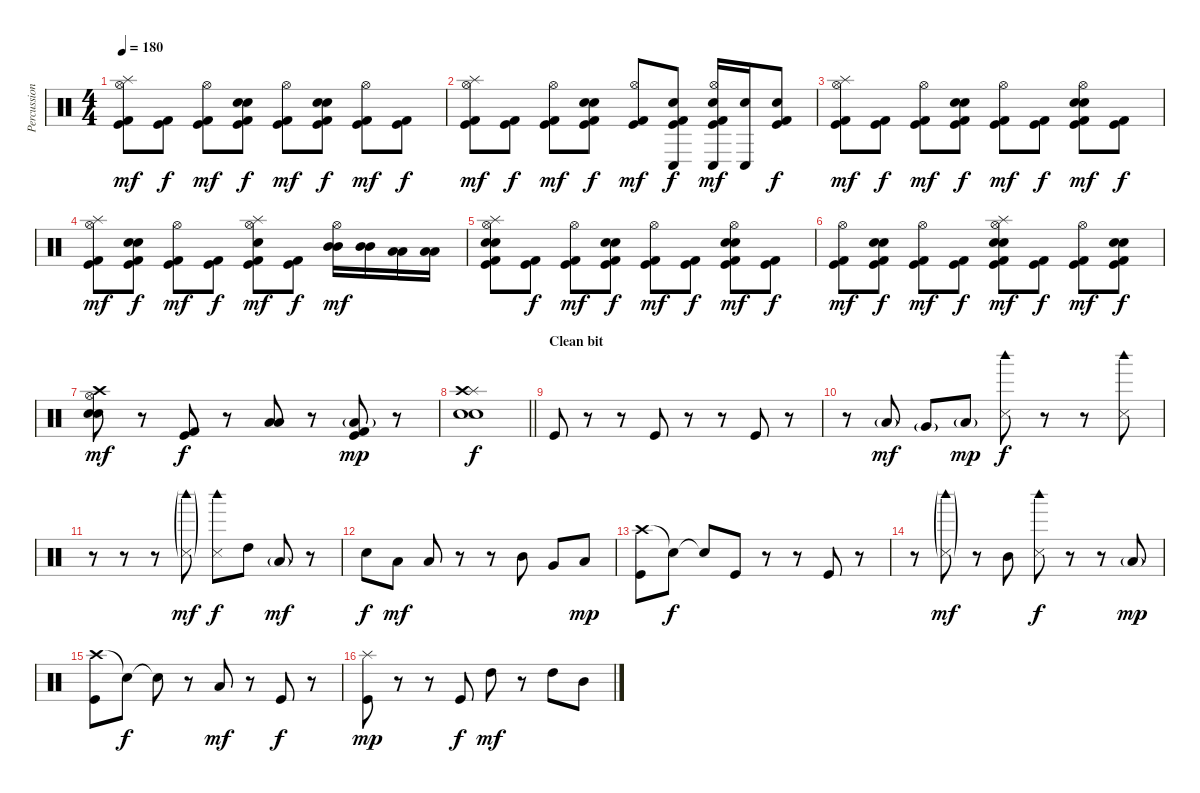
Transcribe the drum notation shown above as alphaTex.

\track ("Percussion" "Percussion") {instrument percussion}
\staff {score}
\articulation defaults
\ts (4 4)
\tempo 180
\clef neutral
\ks c
("Splash (hit)" "Hi-Hat (open)" "Kick (hit) 2" "Kick (hit)").8{dy mf} ("Kick (hit) 2" "Kick (hit)").8{dy f} ("Hi-Hat (open)" "Kick (hit) 2" "Kick (hit)").8{dy mf} ("Electric Snare (hit)" "Electric Snare (hit)" "Kick (hit) 2" "Kick (hit)").8{dy f} ("Hi-Hat (open)" "Kick (hit) 2" "Kick (hit)").8{dy mf} ("Electric Snare (hit)" "Electric Snare (hit)" "Kick (hit) 2" "Kick (hit)").8{dy f} ("Hi-Hat (open)" "Kick (hit) 2" "Kick (hit)").8{dy mf} ("Kick (hit) 2" "Kick (hit)").8{dy f} |
("Splash (hit)" "Hi-Hat (open)" "Kick (hit) 2" "Kick (hit)").8{dy mf} ("Kick (hit) 2" "Kick (hit)").8{dy f} ("Hi-Hat (open)" "Kick (hit) 2" "Kick (hit)").8{dy mf} ("Electric Snare (hit)" "Electric Snare (hit)" "Kick (hit) 2" "Kick (hit)").8{dy f} ("Hi-Hat (open)" "Kick (hit) 2" "Kick (hit)").8{dy mf} ("Conga low (hit)" "Electric Snare (hit)" "Kick (hit) 2" "Kick (hit)").8{dy f} ("Hi-Hat (open)" "Conga low (hit)" "Electric Snare (hit)" "Kick (hit) 2" "Kick (hit)").16{dy mf} ("Conga low (hit)" "Electric Snare (hit)").16 ("Electric Snare (hit)" "Kick (hit) 2" "Kick (hit)").8{dy f} |
("Splash (hit)" "Hi-Hat (open)" "Kick (hit) 2" "Kick (hit)").8{dy mf} ("Kick (hit) 2" "Kick (hit)").8{dy f} ("Hi-Hat (open)" "Kick (hit) 2" "Kick (hit)").8{dy mf} ("Electric Snare (hit)" "Electric Snare (hit)" "Kick (hit) 2" "Kick (hit)").8{dy f} ("Hi-Hat (open)" "Kick (hit) 2" "Kick (hit)").8{dy mf} ("Kick (hit) 2" "Kick (hit)").8{dy f} ("Hi-Hat (open)" "Electric Snare (hit)" "Electric Snare (hit)" "Kick (hit) 2" "Kick (hit)").8{dy mf} ("Kick (hit) 2" "Kick (hit)").8{dy f} |
("Splash (hit)" "Hi-Hat (open)" "Kick (hit) 2" "Kick (hit)").8{dy mf} ("Electric Snare (hit)" "Electric Snare (hit)" "Kick (hit) 2" "Kick (hit)").8{dy f} ("Hi-Hat (open)" "Kick (hit) 2" "Kick (hit)").8{dy mf} ("Kick (hit) 2" "Kick (hit)").8{dy f} ("Splash (hit)" "Hi-Hat (open)" "Electric Snare (hit)" "Kick (hit) 2" "Kick (hit)").8{dy mf} ("Kick (hit) 2" "Kick (hit)").8{dy f} ("Hi-Hat (open)" "Mid Tom (hit)" "Mid Tom (hit)").16{dy mf} ("Mid Tom (hit)" "Mid Tom (hit)").16 ("Low Tom (hit)" "Low Tom (hit)").16 ("Low Tom (hit)" "Low Tom (hit)").16 |
("Splash (hit)" "Hi-Hat (open)" "Electric Snare (hit)" "Electric Snare (hit)" "Kick (hit) 2" "Kick (hit)").8 ("Kick (hit) 2" "Kick (hit)").8{dy f} ("Hi-Hat (open)" "Kick (hit) 2" "Kick (hit)").8{dy mf} ("Electric Snare (hit)" "Electric Snare (hit)" "Kick (hit) 2" "Kick (hit)").8{dy f} ("Hi-Hat (open)" "Kick (hit) 2" "Kick (hit)").8{dy mf} ("Kick (hit) 2" "Kick (hit)").8{dy f} ("Hi-Hat (open)" "Electric Snare (hit)" "Electric Snare (hit)" "Kick (hit) 2" "Kick (hit)").8{dy mf} ("Kick (hit) 2" "Kick (hit)").8{dy f} |
("Hi-Hat (open)" "Kick (hit) 2" "Kick (hit)").8{dy mf} ("Electric Snare (hit)" "Electric Snare (hit)" "Kick (hit) 2" "Kick (hit)").8{dy f} ("Hi-Hat (open)" "Kick (hit) 2" "Kick (hit)").8{dy mf} ("Kick (hit) 2" "Kick (hit)").8{dy f} ("Splash (hit)" "Hi-Hat (open)" "Electric Snare (hit)" "Electric Snare (hit)" "Kick (hit) 2" "Kick (hit)").8{dy mf} ("Kick (hit) 2" "Kick (hit)").8{dy f} ("Hi-Hat (open)" "Kick (hit) 2" "Kick (hit)").8{dy mf} ("Electric Snare (hit)" "Electric Snare (hit)" "Kick (hit) 2" "Kick (hit)").8{dy f} |
("Crash high (hit)" "Hi-Hat (open)" "Electric Snare (hit)" "Electric Snare (hit)").8{dy mf} r.8 ("Kick (hit) 2" "Kick (hit)").8{dy f} r.8 ("Low Tom (hit)" "Low Tom (hit)").8 r.8 ("Low Floor Tom (hit)"{g} "Kick (hit) 2" "Kick (hit)").8{dy mp} r.8 |
\barLineRight lightlight
("Splash (hit)" "Crash high (hit)" "Electric Snare (hit)" "Electric Snare (hit)").1{dy f} |
\section ("" "Clean bit ")
"Kick (hit)".8 r.8 r.8 "Kick (hit)".8 r.8 r.8 "Kick (hit)".8 r.8 |
r.8 "Low Tom (hit)"{g}.8{dy mf} "Very Low Tom (hit)"{g}.8 "Low Floor Tom (hit)"{g}.8{dy mp} ("Snare (side stick) 3" "Woodblock high (hit)").8{dy f} r.8 r.8 ("Snare (side stick) 3" "Woodblock high (hit)").8 |
r.8 r.8 r.8 ("Snare (side stick) 3"{g} "Woodblock high (hit)"{g}).8{dy mf} ("Snare (side stick) 3" "Woodblock high (hit)").8{dy f} "High Tom (hit)".8 "Low Tom (hit)"{g}.8{dy mf} r.8 |
"Electric Snare (hit)".8{dy f} "Low Tom (hit)".8{dy mf} "Low Floor Tom (hit)".8 r.8 r.8 "Mid Tom (hit)".8 "Very Low Tom (hit)".8 "Low Floor Tom (hit)".8{dy mp} |
("Crash high (hit)" "Kick (hit)").8 "Snare (hit)"{t}.8{dy f} "Snare (hit)"{t}.8 "Kick (hit)".8 r.8 r.8 "Kick (hit)".8 r.8 |
r.8 ("Snare (side stick) 3"{g} "Woodblock high (hit)"{g}).8{dy mf} r.8 "Mid Tom (hit)".8 ("Snare (side stick) 3" "Woodblock high (hit)").8{dy f} r.8 r.8 "Low Floor Tom (hit)"{g}.8{dy mp} |
("Crash high (hit)" "Kick (hit)").8 "Snare (hit)"{t}.8{dy f} "Snare (hit)"{t}.8 r.8 "Low Tom (hit)".8{dy mf} r.8 "Kick (hit)".8{dy f} r.8 |
("Splash (hit)" "Kick (hit)").8{dy mp} r.8 r.8 "Kick (hit)".8{dy f} "High Tom (hit)".8{dy mf} r.8 "High Tom (hit)".8 "Mid Tom (hit)".8
